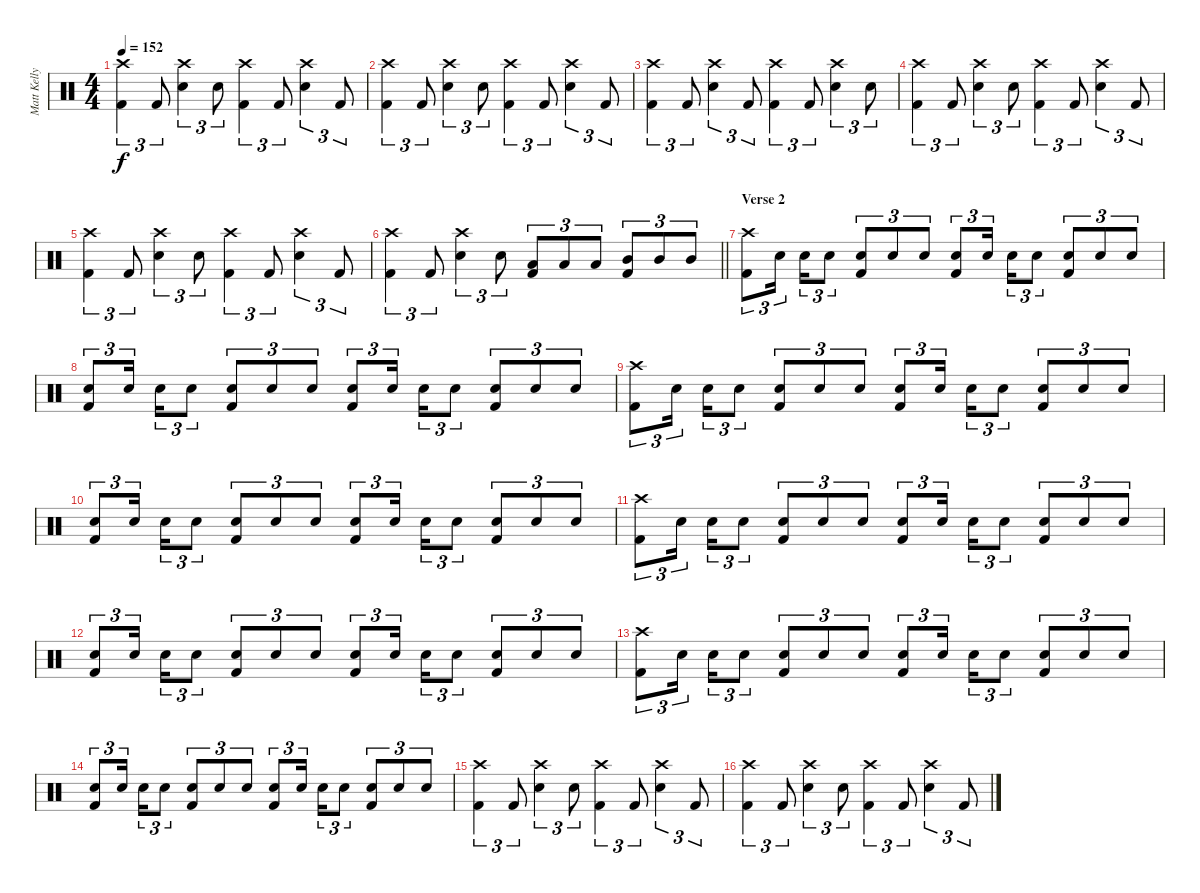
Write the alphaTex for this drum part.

\track ("Matt Kelly (Drums)" "Matt Kelly") {instrument percussion}
\staff {score}
\articulation defaults
\ts (4 4)
\tempo 152
\clef neutral
\ks c
("Crash high (hit)" "Kick (hit) 2").4{tu (3 2) dy f} "Kick (hit) 2".8{tu (3 2)} ("Crash high (hit)" "Electric Snare (hit)").4{tu (3 2)} "Electric Snare (hit)".8{tu (3 2)} ("Crash high (hit)" "Kick (hit) 2").4{tu (3 2)} "Kick (hit) 2".8{tu (3 2)} ("Crash high (hit)" "Electric Snare (hit)").4{tu (3 2)} "Kick (hit) 2".8{tu (3 2)} |
("Crash high (hit)" "Kick (hit) 2").4{tu (3 2)} "Kick (hit) 2".8{tu (3 2)} ("Crash high (hit)" "Electric Snare (hit)").4{tu (3 2)} "Electric Snare (hit)".8{tu (3 2)} ("Crash high (hit)" "Kick (hit) 2").4{tu (3 2)} "Kick (hit) 2".8{tu (3 2)} ("Crash high (hit)" "Electric Snare (hit)").4{tu (3 2)} "Kick (hit) 2".8{tu (3 2)} |
("Crash high (hit)" "Kick (hit) 2").4{tu (3 2)} "Kick (hit) 2".8{tu (3 2)} ("Crash high (hit)" "Electric Snare (hit)").4{tu (3 2)} "Kick (hit) 2".8{tu (3 2)} ("Crash high (hit)" "Kick (hit) 2").4{tu (3 2)} "Kick (hit) 2".8{tu (3 2)} ("Crash high (hit)" "Electric Snare (hit)").4{tu (3 2)} "Electric Snare (hit)".8{tu (3 2)} |
("Crash high (hit)" "Kick (hit) 2").4{tu (3 2)} "Kick (hit) 2".8{tu (3 2)} ("Crash high (hit)" "Electric Snare (hit)").4{tu (3 2)} "Electric Snare (hit)".8{tu (3 2)} ("Crash high (hit)" "Kick (hit) 2").4{tu (3 2)} "Kick (hit) 2".8{tu (3 2)} ("Crash high (hit)" "Electric Snare (hit)").4{tu (3 2)} "Kick (hit) 2".8{tu (3 2)} |
("Crash high (hit)" "Kick (hit) 2").4{tu (3 2)} "Kick (hit) 2".8{tu (3 2)} ("Crash high (hit)" "Electric Snare (hit)").4{tu (3 2)} "Electric Snare (hit)".8{tu (3 2)} ("Crash high (hit)" "Kick (hit) 2").4{tu (3 2)} "Kick (hit) 2".8{tu (3 2)} ("Crash high (hit)" "Electric Snare (hit)").4{tu (3 2)} "Kick (hit) 2".8{tu (3 2)} |
\barLineRight lightlight
("Crash high (hit)" "Kick (hit) 2").4{tu (3 2)} "Kick (hit) 2".8{tu (3 2)} ("Crash high (hit)" "Electric Snare (hit)").4{tu (3 2)} "Electric Snare (hit)".8{tu (3 2)} ("Low Tom (hit)" "Kick (hit) 2").8{tu (3 2)} "Low Tom (hit)".8{tu (3 2)} "Low Tom (hit)".8{tu (3 2)} ("Mid Tom (hit)" "Kick (hit) 2").8{tu (3 2)} "Mid Tom (hit)".8{tu (3 2)} "Mid Tom (hit)".8{tu (3 2)} |
\section ("" "Verse 2")
("Crash high (hit)" "Kick (hit) 2").8{tu (3 2)} "Electric Snare (hit)".16{tu (3 2) beam splitsecondary} "Electric Snare (hit)".16{tu (3 2)} "Electric Snare (hit)".8{tu (3 2)} ("Electric Snare (hit)" "Kick (hit) 2").8{tu (3 2)} "Electric Snare (hit)".8{tu (3 2)} "Electric Snare (hit)".8{tu (3 2)} ("Electric Snare (hit)" "Kick (hit) 2").8{tu (3 2)} "Electric Snare (hit)".16{tu (3 2) beam splitsecondary} "Electric Snare (hit)".16{tu (3 2)} "Electric Snare (hit)".8{tu (3 2)} ("Electric Snare (hit)" "Kick (hit) 2").8{tu (3 2)} "Electric Snare (hit)".8{tu (3 2)} "Electric Snare (hit)".8{tu (3 2)} |
("Electric Snare (hit)" "Kick (hit) 2").8{tu (3 2)} "Electric Snare (hit)".16{tu (3 2) beam splitsecondary} "Electric Snare (hit)".16{tu (3 2)} "Electric Snare (hit)".8{tu (3 2)} ("Electric Snare (hit)" "Kick (hit) 2").8{tu (3 2)} "Electric Snare (hit)".8{tu (3 2)} "Electric Snare (hit)".8{tu (3 2)} ("Electric Snare (hit)" "Kick (hit) 2").8{tu (3 2)} "Electric Snare (hit)".16{tu (3 2) beam splitsecondary} "Electric Snare (hit)".16{tu (3 2)} "Electric Snare (hit)".8{tu (3 2)} ("Electric Snare (hit)" "Kick (hit) 2").8{tu (3 2)} "Electric Snare (hit)".8{tu (3 2)} "Electric Snare (hit)".8{tu (3 2)} |
("Crash high (hit)" "Kick (hit) 2").8{tu (3 2)} "Electric Snare (hit)".16{tu (3 2) beam splitsecondary} "Electric Snare (hit)".16{tu (3 2)} "Electric Snare (hit)".8{tu (3 2)} ("Electric Snare (hit)" "Kick (hit) 2").8{tu (3 2)} "Electric Snare (hit)".8{tu (3 2)} "Electric Snare (hit)".8{tu (3 2)} ("Electric Snare (hit)" "Kick (hit) 2").8{tu (3 2)} "Electric Snare (hit)".16{tu (3 2) beam splitsecondary} "Electric Snare (hit)".16{tu (3 2)} "Electric Snare (hit)".8{tu (3 2)} ("Electric Snare (hit)" "Kick (hit) 2").8{tu (3 2)} "Electric Snare (hit)".8{tu (3 2)} "Electric Snare (hit)".8{tu (3 2)} |
("Electric Snare (hit)" "Kick (hit) 2").8{tu (3 2)} "Electric Snare (hit)".16{tu (3 2) beam splitsecondary} "Electric Snare (hit)".16{tu (3 2)} "Electric Snare (hit)".8{tu (3 2)} ("Electric Snare (hit)" "Kick (hit) 2").8{tu (3 2)} "Electric Snare (hit)".8{tu (3 2)} "Electric Snare (hit)".8{tu (3 2)} ("Electric Snare (hit)" "Kick (hit) 2").8{tu (3 2)} "Electric Snare (hit)".16{tu (3 2) beam splitsecondary} "Electric Snare (hit)".16{tu (3 2)} "Electric Snare (hit)".8{tu (3 2)} ("Electric Snare (hit)" "Kick (hit) 2").8{tu (3 2)} "Electric Snare (hit)".8{tu (3 2)} "Electric Snare (hit)".8{tu (3 2)} |
("Crash high (hit)" "Kick (hit) 2").8{tu (3 2)} "Electric Snare (hit)".16{tu (3 2) beam splitsecondary} "Electric Snare (hit)".16{tu (3 2)} "Electric Snare (hit)".8{tu (3 2)} ("Electric Snare (hit)" "Kick (hit) 2").8{tu (3 2)} "Electric Snare (hit)".8{tu (3 2)} "Electric Snare (hit)".8{tu (3 2)} ("Electric Snare (hit)" "Kick (hit) 2").8{tu (3 2)} "Electric Snare (hit)".16{tu (3 2) beam splitsecondary} "Electric Snare (hit)".16{tu (3 2)} "Electric Snare (hit)".8{tu (3 2)} ("Electric Snare (hit)" "Kick (hit) 2").8{tu (3 2)} "Electric Snare (hit)".8{tu (3 2)} "Electric Snare (hit)".8{tu (3 2)} |
("Electric Snare (hit)" "Kick (hit) 2").8{tu (3 2)} "Electric Snare (hit)".16{tu (3 2) beam splitsecondary} "Electric Snare (hit)".16{tu (3 2)} "Electric Snare (hit)".8{tu (3 2)} ("Electric Snare (hit)" "Kick (hit) 2").8{tu (3 2)} "Electric Snare (hit)".8{tu (3 2)} "Electric Snare (hit)".8{tu (3 2)} ("Electric Snare (hit)" "Kick (hit) 2").8{tu (3 2)} "Electric Snare (hit)".16{tu (3 2) beam splitsecondary} "Electric Snare (hit)".16{tu (3 2)} "Electric Snare (hit)".8{tu (3 2)} ("Electric Snare (hit)" "Kick (hit) 2").8{tu (3 2)} "Electric Snare (hit)".8{tu (3 2)} "Electric Snare (hit)".8{tu (3 2)} |
("Crash high (hit)" "Kick (hit) 2").8{tu (3 2)} "Electric Snare (hit)".16{tu (3 2) beam splitsecondary} "Electric Snare (hit)".16{tu (3 2)} "Electric Snare (hit)".8{tu (3 2)} ("Electric Snare (hit)" "Kick (hit) 2").8{tu (3 2)} "Electric Snare (hit)".8{tu (3 2)} "Electric Snare (hit)".8{tu (3 2)} ("Electric Snare (hit)" "Kick (hit) 2").8{tu (3 2)} "Electric Snare (hit)".16{tu (3 2) beam splitsecondary} "Electric Snare (hit)".16{tu (3 2)} "Electric Snare (hit)".8{tu (3 2)} ("Electric Snare (hit)" "Kick (hit) 2").8{tu (3 2)} "Electric Snare (hit)".8{tu (3 2)} "Electric Snare (hit)".8{tu (3 2)} |
("Electric Snare (hit)" "Kick (hit) 2").8{tu (3 2)} "Electric Snare (hit)".16{tu (3 2) beam splitsecondary} "Electric Snare (hit)".16{tu (3 2)} "Electric Snare (hit)".8{tu (3 2)} ("Electric Snare (hit)" "Kick (hit) 2").8{tu (3 2)} "Electric Snare (hit)".8{tu (3 2)} "Electric Snare (hit)".8{tu (3 2)} ("Electric Snare (hit)" "Kick (hit) 2").8{tu (3 2)} "Electric Snare (hit)".16{tu (3 2) beam splitsecondary} "Electric Snare (hit)".16{tu (3 2)} "Electric Snare (hit)".8{tu (3 2)} ("Electric Snare (hit)" "Kick (hit) 2").8{tu (3 2)} "Electric Snare (hit)".8{tu (3 2)} "Electric Snare (hit)".8{tu (3 2)} |
("Crash high (hit)" "Kick (hit) 2").4{tu (3 2)} "Kick (hit) 2".8{tu (3 2)} ("Crash high (hit)" "Electric Snare (hit)").4{tu (3 2)} "Electric Snare (hit)".8{tu (3 2)} ("Crash high (hit)" "Kick (hit) 2").4{tu (3 2)} "Kick (hit) 2".8{tu (3 2)} ("Crash high (hit)" "Electric Snare (hit)").4{tu (3 2)} "Kick (hit) 2".8{tu (3 2)} |
("Crash high (hit)" "Kick (hit) 2").4{tu (3 2)} "Kick (hit) 2".8{tu (3 2)} ("Crash high (hit)" "Electric Snare (hit)").4{tu (3 2)} "Electric Snare (hit)".8{tu (3 2)} ("Crash high (hit)" "Kick (hit) 2").4{tu (3 2)} "Kick (hit) 2".8{tu (3 2)} ("Crash high (hit)" "Electric Snare (hit)").4{tu (3 2)} "Kick (hit) 2".8{tu (3 2)}
